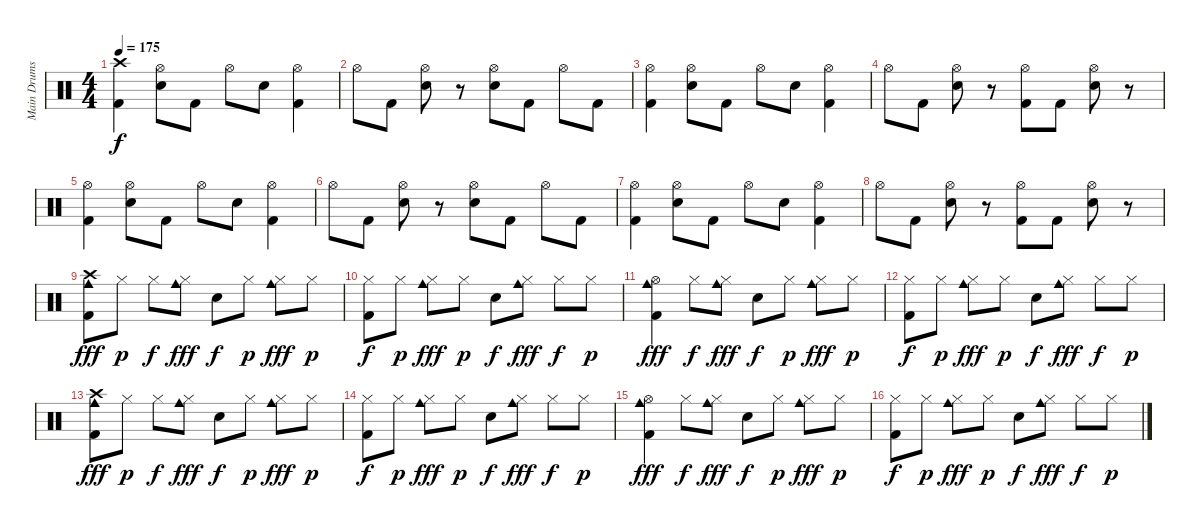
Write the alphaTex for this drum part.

\track ("Main Drums" "Main Drums") {instrument percussion}
\staff {score}
\articulation defaults
\ts (4 4)
\tempo 175
\clef neutral
\ks c
("Crash high (hit)" "Kick (hit) 2").4{dy f} ("Hi-Hat (open)" "Electric Snare (hit)").8 "Kick (hit) 2".8 "Hi-Hat (open)".8 "Electric Snare (hit)".8 ("Hi-Hat (open)" "Kick (hit) 2").4 |
"Hi-Hat (open)".8 "Kick (hit) 2".8 ("Hi-Hat (open)" "Electric Snare (hit)").8 r.8 ("Hi-Hat (open)" "Electric Snare (hit)").8 "Kick (hit) 2".8 "Hi-Hat (open)".8 "Kick (hit) 2".8 |
("Hi-Hat (open)" "Kick (hit) 2").4 ("Hi-Hat (open)" "Electric Snare (hit)").8 "Kick (hit) 2".8 "Hi-Hat (open)".8 "Electric Snare (hit)".8 ("Hi-Hat (open)" "Kick (hit) 2").4 |
"Hi-Hat (open)".8 "Kick (hit) 2".8 ("Hi-Hat (open)" "Electric Snare (hit)").8 r.8 ("Hi-Hat (open)" "Kick (hit) 2").8 "Kick (hit) 2".8 ("Hi-Hat (open)" "Electric Snare (hit)").8 r.8 |
("Hi-Hat (open)" "Kick (hit) 2").4 ("Hi-Hat (open)" "Electric Snare (hit)").8 "Kick (hit) 2".8 "Hi-Hat (open)".8 "Electric Snare (hit)".8 ("Hi-Hat (open)" "Kick (hit) 2").4 |
"Hi-Hat (open)".8 "Kick (hit) 2".8 ("Hi-Hat (open)" "Electric Snare (hit)").8 r.8 ("Hi-Hat (open)" "Electric Snare (hit)").8 "Kick (hit) 2".8 "Hi-Hat (open)".8 "Kick (hit) 2".8 |
("Hi-Hat (open)" "Kick (hit) 2").4 ("Hi-Hat (open)" "Electric Snare (hit)").8 "Kick (hit) 2".8 "Hi-Hat (open)".8 "Electric Snare (hit)".8 ("Hi-Hat (open)" "Kick (hit) 2").4 |
"Hi-Hat (open)".8 "Kick (hit) 2".8 ("Hi-Hat (open)" "Electric Snare (hit)").8 r.8 ("Hi-Hat (open)" "Kick (hit) 2").8 "Kick (hit) 2".8 ("Hi-Hat (open)" "Electric Snare (hit)").8 r.8 |
("Crash high (hit)" "Cowbell medium (hit)" "Kick (hit) 2").8{dy fff} "Hi-Hat (closed)".8{dy p} "Hi-Hat (closed)".8{dy f} ("Hi-Hat (closed)" "Cowbell medium (hit)").8{dy fff} "Electric Snare (hit)".8{dy f} "Hi-Hat (closed)".8{dy p} ("Hi-Hat (closed)" "Cowbell medium (hit)").8{dy fff} "Hi-Hat (closed)".8{dy p} |
("Hi-Hat (closed)" "Kick (hit) 2").8{dy f} "Hi-Hat (closed)".8{dy p} ("Hi-Hat (closed)" "Cowbell medium (hit)").8{dy fff} "Hi-Hat (closed)".8{dy p} "Electric Snare (hit)".8{dy f} ("Hi-Hat (closed)" "Cowbell medium (hit)").8{dy fff} "Hi-Hat (closed)".8{dy f} "Hi-Hat (closed)".8{dy p} |
("Hi-Hat (open)" "Cowbell medium (hit)" "Kick (hit) 2").4{dy fff} "Hi-Hat (closed)".8{dy f} ("Hi-Hat (closed)" "Cowbell medium (hit)").8{dy fff} "Electric Snare (hit)".8{dy f} "Hi-Hat (closed)".8{dy p} ("Hi-Hat (closed)" "Cowbell medium (hit)").8{dy fff} "Hi-Hat (closed)".8{dy p} |
("Hi-Hat (closed)" "Kick (hit) 2").8{dy f} "Hi-Hat (closed)".8{dy p} ("Hi-Hat (closed)" "Cowbell medium (hit)").8{dy fff} "Hi-Hat (closed)".8{dy p} "Electric Snare (hit)".8{dy f} ("Hi-Hat (closed)" "Cowbell medium (hit)").8{dy fff} "Hi-Hat (closed)".8{dy f} "Hi-Hat (closed)".8{dy p} |
("Crash high (hit)" "Cowbell medium (hit)" "Kick (hit) 2").8{dy fff} "Hi-Hat (closed)".8{dy p} "Hi-Hat (closed)".8{dy f} ("Hi-Hat (closed)" "Cowbell medium (hit)").8{dy fff} "Electric Snare (hit)".8{dy f} "Hi-Hat (closed)".8{dy p} ("Hi-Hat (closed)" "Cowbell medium (hit)").8{dy fff} "Hi-Hat (closed)".8{dy p} |
("Hi-Hat (closed)" "Kick (hit) 2").8{dy f} "Hi-Hat (closed)".8{dy p} ("Hi-Hat (closed)" "Cowbell medium (hit)").8{dy fff} "Hi-Hat (closed)".8{dy p} "Electric Snare (hit)".8{dy f} ("Hi-Hat (closed)" "Cowbell medium (hit)").8{dy fff} "Hi-Hat (closed)".8{dy f} "Hi-Hat (closed)".8{dy p} |
("Hi-Hat (open)" "Cowbell medium (hit)" "Kick (hit) 2").4{dy fff} "Hi-Hat (closed)".8{dy f} ("Hi-Hat (closed)" "Cowbell medium (hit)").8{dy fff} "Electric Snare (hit)".8{dy f} "Hi-Hat (closed)".8{dy p} ("Hi-Hat (closed)" "Cowbell medium (hit)").8{dy fff} "Hi-Hat (closed)".8{dy p} |
("Hi-Hat (closed)" "Kick (hit) 2").8{dy f} "Hi-Hat (closed)".8{dy p} ("Hi-Hat (closed)" "Cowbell medium (hit)").8{dy fff} "Hi-Hat (closed)".8{dy p} "Electric Snare (hit)".8{dy f} ("Hi-Hat (closed)" "Cowbell medium (hit)").8{dy fff} "Hi-Hat (closed)".8{dy f} "Hi-Hat (closed)".8{dy p}
